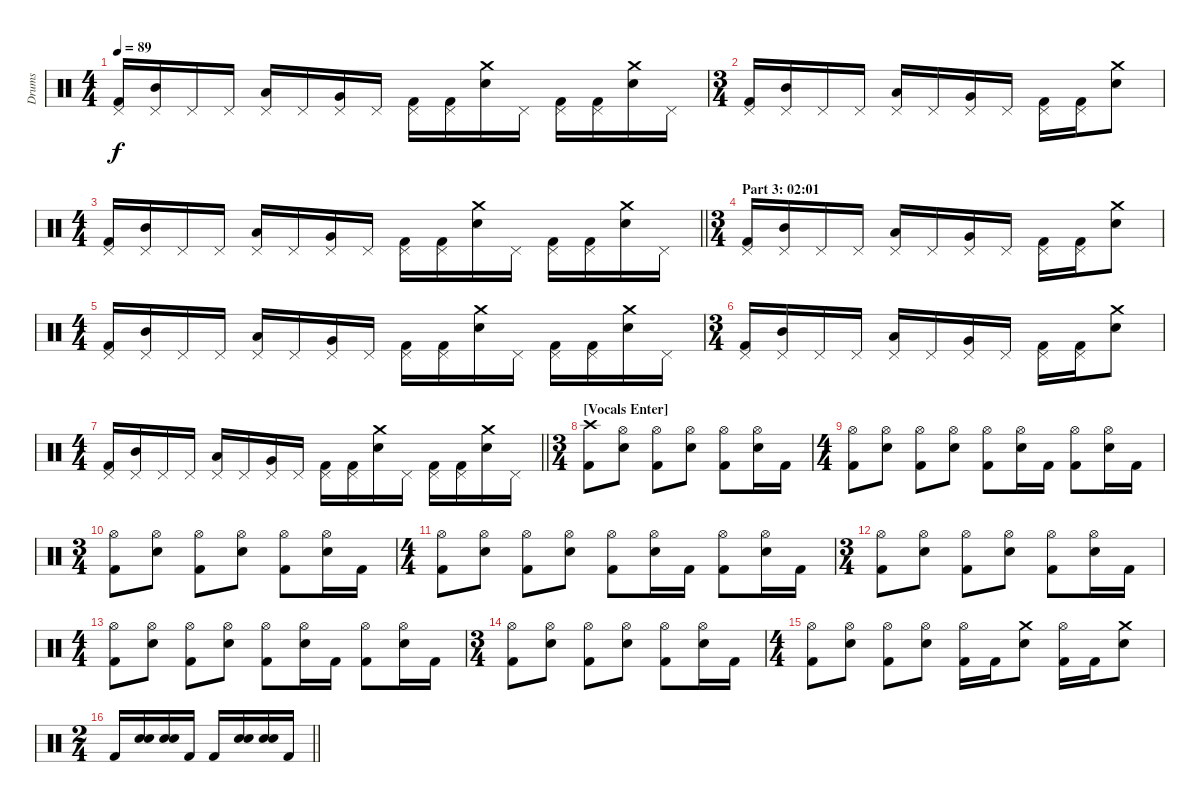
\track ("Drums" "Drums") {instrument percussion}
\staff {score}
\articulation defaults
\ts (4 4)
\tempo 89
\clef neutral
\ks c
("Pedal Hi-Hat (hit)" "Kick (hit) 2").16{dy f} ("Pedal Hi-Hat (hit)" "Mid Tom (hit)").16 "Pedal Hi-Hat (hit)".16 "Pedal Hi-Hat (hit)".16 ("Pedal Hi-Hat (hit)" "Low Tom (hit)").16 "Pedal Hi-Hat (hit)".16 ("Pedal Hi-Hat (hit)" "Very Low Tom (hit)").16 "Pedal Hi-Hat (hit)".16 ("Pedal Hi-Hat (hit)" "Kick (hit) 2").16 ("Pedal Hi-Hat (hit)" "Kick (hit) 2").16 ("Crash medium (hit)" "Electric Snare (hit)").16 "Pedal Hi-Hat (hit)".16 ("Pedal Hi-Hat (hit)" "Kick (hit) 2").16 ("Pedal Hi-Hat (hit)" "Kick (hit) 2").16 ("Crash medium (hit)" "Electric Snare (hit)").16 "Pedal Hi-Hat (hit)".16 |
\ts (3 4)
("Pedal Hi-Hat (hit)" "Kick (hit) 2").16 ("Pedal Hi-Hat (hit)" "Mid Tom (hit)").16 "Pedal Hi-Hat (hit)".16 "Pedal Hi-Hat (hit)".16 ("Pedal Hi-Hat (hit)" "Low Tom (hit)").16 "Pedal Hi-Hat (hit)".16 ("Pedal Hi-Hat (hit)" "Very Low Tom (hit)").16 "Pedal Hi-Hat (hit)".16 ("Pedal Hi-Hat (hit)" "Kick (hit) 2").16 ("Pedal Hi-Hat (hit)" "Kick (hit) 2").16 ("Crash medium (hit)" "Electric Snare (hit)").8 |
\ts (4 4)
\barLineRight lightlight
("Pedal Hi-Hat (hit)" "Kick (hit) 2").16 ("Pedal Hi-Hat (hit)" "Mid Tom (hit)").16 "Pedal Hi-Hat (hit)".16 "Pedal Hi-Hat (hit)".16 ("Pedal Hi-Hat (hit)" "Low Tom (hit)").16 "Pedal Hi-Hat (hit)".16 ("Pedal Hi-Hat (hit)" "Very Low Tom (hit)").16 "Pedal Hi-Hat (hit)".16 ("Pedal Hi-Hat (hit)" "Kick (hit) 2").16 ("Pedal Hi-Hat (hit)" "Kick (hit) 2").16 ("Crash medium (hit)" "Electric Snare (hit)").16 "Pedal Hi-Hat (hit)".16 ("Pedal Hi-Hat (hit)" "Kick (hit) 2").16 ("Pedal Hi-Hat (hit)" "Kick (hit) 2").16 ("Crash medium (hit)" "Electric Snare (hit)").16 "Pedal Hi-Hat (hit)".16 |
\ts (3 4)
\section ("" "Part 3: 02:01")
("Pedal Hi-Hat (hit)" "Kick (hit) 2").16 ("Pedal Hi-Hat (hit)" "Mid Tom (hit)").16 "Pedal Hi-Hat (hit)".16 "Pedal Hi-Hat (hit)".16 ("Pedal Hi-Hat (hit)" "Low Tom (hit)").16 "Pedal Hi-Hat (hit)".16 ("Pedal Hi-Hat (hit)" "Very Low Tom (hit)").16 "Pedal Hi-Hat (hit)".16 ("Pedal Hi-Hat (hit)" "Kick (hit) 2").16 ("Pedal Hi-Hat (hit)" "Kick (hit) 2").16 ("Crash medium (hit)" "Electric Snare (hit)").8 |
\ts (4 4)
("Pedal Hi-Hat (hit)" "Kick (hit) 2").16 ("Pedal Hi-Hat (hit)" "Mid Tom (hit)").16 "Pedal Hi-Hat (hit)".16 "Pedal Hi-Hat (hit)".16 ("Pedal Hi-Hat (hit)" "Low Tom (hit)").16 "Pedal Hi-Hat (hit)".16 ("Pedal Hi-Hat (hit)" "Very Low Tom (hit)").16 "Pedal Hi-Hat (hit)".16 ("Pedal Hi-Hat (hit)" "Kick (hit) 2").16 ("Pedal Hi-Hat (hit)" "Kick (hit) 2").16 ("Crash medium (hit)" "Electric Snare (hit)").16 "Pedal Hi-Hat (hit)".16 ("Pedal Hi-Hat (hit)" "Kick (hit) 2").16 ("Pedal Hi-Hat (hit)" "Kick (hit) 2").16 ("Crash medium (hit)" "Electric Snare (hit)").16 "Pedal Hi-Hat (hit)".16 |
\ts (3 4)
("Pedal Hi-Hat (hit)" "Kick (hit) 2").16 ("Pedal Hi-Hat (hit)" "Mid Tom (hit)").16 "Pedal Hi-Hat (hit)".16 "Pedal Hi-Hat (hit)".16 ("Pedal Hi-Hat (hit)" "Low Tom (hit)").16 "Pedal Hi-Hat (hit)".16 ("Pedal Hi-Hat (hit)" "Very Low Tom (hit)").16 "Pedal Hi-Hat (hit)".16 ("Pedal Hi-Hat (hit)" "Kick (hit) 2").16 ("Pedal Hi-Hat (hit)" "Kick (hit) 2").16 ("Crash medium (hit)" "Electric Snare (hit)").8 |
\ts (4 4)
\barLineRight lightlight
("Pedal Hi-Hat (hit)" "Kick (hit) 2").16 ("Pedal Hi-Hat (hit)" "Mid Tom (hit)").16 "Pedal Hi-Hat (hit)".16 "Pedal Hi-Hat (hit)".16 ("Pedal Hi-Hat (hit)" "Low Tom (hit)").16 "Pedal Hi-Hat (hit)".16 ("Pedal Hi-Hat (hit)" "Very Low Tom (hit)").16 "Pedal Hi-Hat (hit)".16 ("Pedal Hi-Hat (hit)" "Kick (hit) 2").16 ("Pedal Hi-Hat (hit)" "Kick (hit) 2").16 ("Crash medium (hit)" "Electric Snare (hit)").16 "Pedal Hi-Hat (hit)".16 ("Pedal Hi-Hat (hit)" "Kick (hit) 2").16 ("Pedal Hi-Hat (hit)" "Kick (hit) 2").16 ("Crash medium (hit)" "Electric Snare (hit)").16 "Pedal Hi-Hat (hit)".16 |
\ts (3 4)
\section ("" "[Vocals Enter]")
("Crash high (hit)" "Kick (hit) 2").8 ("Hi-Hat (open)" "Electric Snare (hit)").8 ("Hi-Hat (open)" "Kick (hit) 2").8 ("Hi-Hat (open)" "Electric Snare (hit)").8 ("Hi-Hat (open)" "Kick (hit) 2").8 ("Hi-Hat (open)" "Electric Snare (hit)").16 "Kick (hit) 2".16 |
\ts (4 4)
("Hi-Hat (open)" "Kick (hit) 2").8 ("Hi-Hat (open)" "Electric Snare (hit)").8 ("Hi-Hat (open)" "Kick (hit) 2").8 ("Hi-Hat (open)" "Electric Snare (hit)").8 ("Hi-Hat (open)" "Kick (hit) 2").8 ("Hi-Hat (open)" "Electric Snare (hit)").16 "Kick (hit) 2".16 ("Hi-Hat (open)" "Kick (hit) 2").8 ("Hi-Hat (open)" "Electric Snare (hit)").16 "Kick (hit) 2".16 |
\ts (3 4)
("Hi-Hat (open)" "Kick (hit) 2").8 ("Hi-Hat (open)" "Electric Snare (hit)").8 ("Hi-Hat (open)" "Kick (hit) 2").8 ("Hi-Hat (open)" "Electric Snare (hit)").8 ("Hi-Hat (open)" "Kick (hit) 2").8 ("Hi-Hat (open)" "Electric Snare (hit)").16 "Kick (hit) 2".16 |
\ts (4 4)
("Hi-Hat (open)" "Kick (hit) 2").8 ("Hi-Hat (open)" "Electric Snare (hit)").8 ("Hi-Hat (open)" "Kick (hit) 2").8 ("Hi-Hat (open)" "Electric Snare (hit)").8 ("Hi-Hat (open)" "Kick (hit) 2").8 ("Hi-Hat (open)" "Electric Snare (hit)").16 "Kick (hit) 2".16 ("Hi-Hat (open)" "Kick (hit) 2").8 ("Hi-Hat (open)" "Electric Snare (hit)").16 "Kick (hit) 2".16 |
\ts (3 4)
("Hi-Hat (open)" "Kick (hit) 2").8 ("Hi-Hat (open)" "Electric Snare (hit)").8 ("Hi-Hat (open)" "Kick (hit) 2").8 ("Hi-Hat (open)" "Electric Snare (hit)").8 ("Hi-Hat (open)" "Kick (hit) 2").8 ("Hi-Hat (open)" "Electric Snare (hit)").16 "Kick (hit) 2".16 |
\ts (4 4)
("Hi-Hat (open)" "Kick (hit) 2").8 ("Hi-Hat (open)" "Electric Snare (hit)").8 ("Hi-Hat (open)" "Kick (hit) 2").8 ("Hi-Hat (open)" "Electric Snare (hit)").8 ("Hi-Hat (open)" "Kick (hit) 2").8 ("Hi-Hat (open)" "Electric Snare (hit)").16 "Kick (hit) 2".16 ("Hi-Hat (open)" "Kick (hit) 2").8 ("Hi-Hat (open)" "Electric Snare (hit)").16 "Kick (hit) 2".16 |
\ts (3 4)
("Hi-Hat (open)" "Kick (hit) 2").8 ("Hi-Hat (open)" "Electric Snare (hit)").8 ("Hi-Hat (open)" "Kick (hit) 2").8 ("Hi-Hat (open)" "Electric Snare (hit)").8 ("Hi-Hat (open)" "Kick (hit) 2").8 ("Hi-Hat (open)" "Electric Snare (hit)").16 "Kick (hit) 2".16 |
\ts (4 4)
("Hi-Hat (open)" "Kick (hit) 2").8 ("Hi-Hat (open)" "Electric Snare (hit)").8 ("Hi-Hat (open)" "Kick (hit) 2").8 ("Hi-Hat (open)" "Electric Snare (hit)").8 ("Hi-Hat (open)" "Kick (hit) 2").16 "Kick (hit) 2".16 ("Crash medium (hit)" "Electric Snare (hit)").8 ("Hi-Hat (open)" "Kick (hit) 2").16 "Kick (hit) 2".16 ("Crash medium (hit)" "Electric Snare (hit)").8 |
\ts (2 4)
\barLineRight lightlight "Kick (hit) 2".16
("Electric Snare (hit)" "Electric Snare (hit)").16{bd 30} ("Electric Snare (hit)" "Electric Snare (hit)").16{bd 30} "Kick (hit) 2".16 "Kick (hit) 2".16 ("Electric Snare (hit)" "Electric Snare (hit)").16{bd 30} ("Electric Snare (hit)" "Electric Snare (hit)").16{bd 30} "Kick (hit) 2".16
